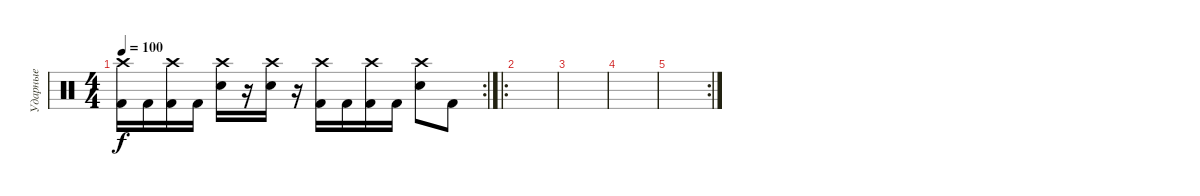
\track ("Ударные" "Ударные") {instrument percussion}
\staff {score}
\articulation defaults
\rc 2
\ts (4 4)
\tempo 100
\clef neutral
\ks c
("Crash high (hit)" "Kick (hit) 2").16{dy f} "Kick (hit) 2".16 ("Crash high (hit)" "Kick (hit) 2").16 "Kick (hit) 2".16 ("Crash high (hit)" "Electric Snare (hit)").16 r.16 ("Crash high (hit)" "Electric Snare (hit)").16 r.16 ("Crash high (hit)" "Kick (hit) 2").16 "Kick (hit) 2".16 ("Crash high (hit)" "Kick (hit) 2").16 "Kick (hit) 2".16 ("Crash high (hit)" "Electric Snare (hit)").8 "Kick (hit) 2".8 |
\ro
|
|
|
\rc 2
